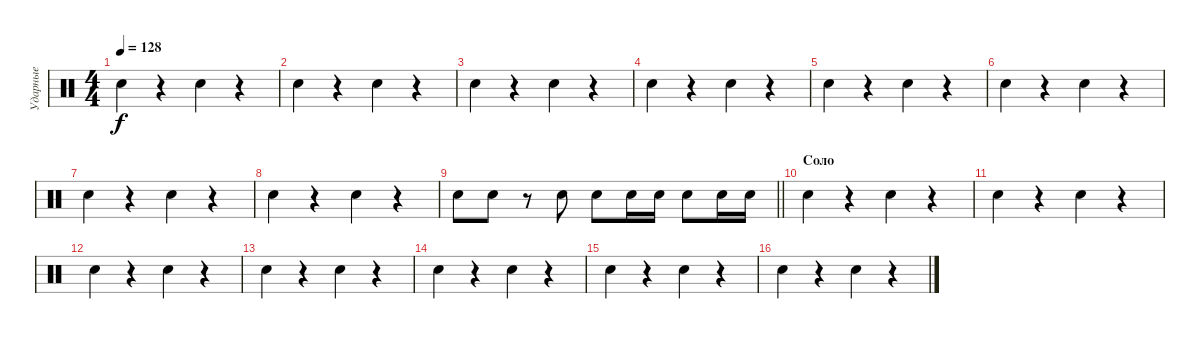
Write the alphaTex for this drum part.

\track ("Ударные" "Ударные") {instrument percussion}
\staff {score}
\articulation defaults
\ts (4 4)
\tempo 128
\clef neutral
\ks c "Electric Snare (hit)".4{dy f}
r.4 "Electric Snare (hit)".4 r.4 |
"Electric Snare (hit)".4 r.4 "Electric Snare (hit)".4 r.4 |
"Electric Snare (hit)".4 r.4 "Electric Snare (hit)".4 r.4 |
"Electric Snare (hit)".4 r.4 "Electric Snare (hit)".4 r.4 |
"Electric Snare (hit)".4 r.4 "Electric Snare (hit)".4 r.4 |
"Electric Snare (hit)".4 r.4 "Electric Snare (hit)".4 r.4 |
"Electric Snare (hit)".4 r.4 "Electric Snare (hit)".4 r.4 |
"Electric Snare (hit)".4 r.4 "Electric Snare (hit)".4 r.4 |
\barLineRight lightlight "Electric Snare (hit)".8 "Electric Snare (hit)".8
r.8 "Electric Snare (hit)".8 "Electric Snare (hit)".8 "Electric Snare (hit)".16 "Electric Snare (hit)".16 "Electric Snare (hit)".8 "Electric Snare (hit)".16 "Electric Snare (hit)".16 |
\section ("" "Соло")
"Electric Snare (hit)".4 r.4 "Electric Snare (hit)".4 r.4 |
"Electric Snare (hit)".4 r.4 "Electric Snare (hit)".4 r.4 |
"Electric Snare (hit)".4 r.4 "Electric Snare (hit)".4 r.4 |
"Electric Snare (hit)".4 r.4 "Electric Snare (hit)".4 r.4 |
"Electric Snare (hit)".4 r.4 "Electric Snare (hit)".4 r.4 |
"Electric Snare (hit)".4 r.4 "Electric Snare (hit)".4 r.4 |
"Electric Snare (hit)".4 r.4 "Electric Snare (hit)".4 r.4
